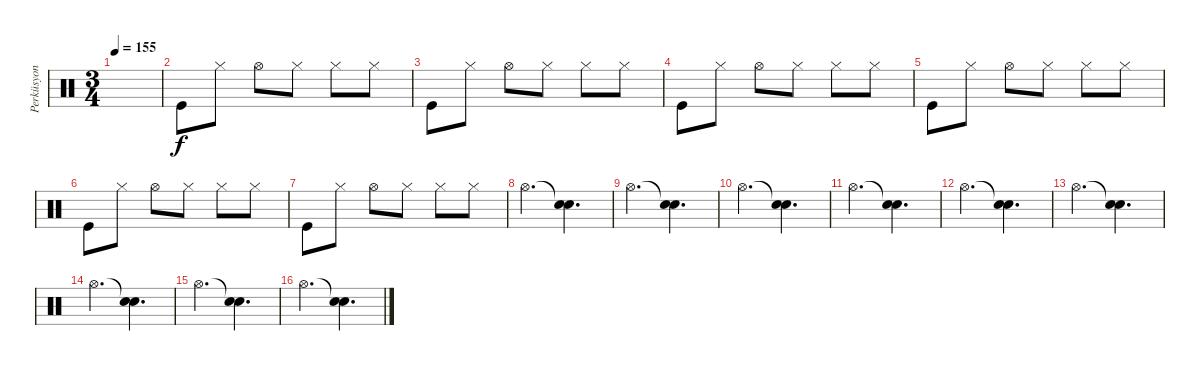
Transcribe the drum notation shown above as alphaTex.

\track ("Perküsyon" "Perküsyon") {instrument percussion}
\staff {score}
\articulation defaults
\ts (3 4)
\tempo 155
\clef neutral
\ks c
|
"Kick (hit)".8 "Hi-Hat (closed)".8 "Hi-Hat (open)".8 "Hi-Hat (closed)".8 "Hi-Hat (closed)".8 "Hi-Hat (closed)".8 |
"Kick (hit)".8 "Hi-Hat (closed)".8 "Hi-Hat (open)".8 "Hi-Hat (closed)".8 "Hi-Hat (closed)".8 "Hi-Hat (closed)".8 |
"Kick (hit)".8 "Hi-Hat (closed)".8 "Hi-Hat (open)".8 "Hi-Hat (closed)".8 "Hi-Hat (closed)".8 "Hi-Hat (closed)".8 |
"Kick (hit)".8 "Hi-Hat (closed)".8 "Hi-Hat (open)".8 "Hi-Hat (closed)".8 "Hi-Hat (closed)".8 "Hi-Hat (closed)".8 |
"Kick (hit)".8 "Hi-Hat (closed)".8 "Hi-Hat (open)".8 "Hi-Hat (closed)".8 "Hi-Hat (closed)".8 "Hi-Hat (closed)".8 |
"Kick (hit)".8 "Hi-Hat (closed)".8 "Hi-Hat (open)".8 "Hi-Hat (closed)".8 "Hi-Hat (closed)".8 "Hi-Hat (closed)".8 |
"Hi-Hat (open)".4{d} ("Snare (hit)"{t} "Electric Snare (hit)").4{d} |
"Hi-Hat (open)".4{d} ("Snare (hit)"{t} "Electric Snare (hit)").4{d} |
"Hi-Hat (open)".4{d} ("Snare (hit)"{t} "Electric Snare (hit)").4{d} |
"Hi-Hat (open)".4{d} ("Snare (hit)"{t} "Electric Snare (hit)").4{d} |
"Hi-Hat (open)".4{d} ("Snare (hit)"{t} "Electric Snare (hit)").4{d} |
"Hi-Hat (open)".4{d} ("Snare (hit)"{t} "Electric Snare (hit)").4{d} |
"Hi-Hat (open)".4{d} ("Snare (hit)"{t} "Electric Snare (hit)").4{d} |
"Hi-Hat (open)".4{d} ("Snare (hit)"{t} "Electric Snare (hit)").4{d} |
"Hi-Hat (open)".4{d} ("Snare (hit)"{t} "Electric Snare (hit)").4{d}
